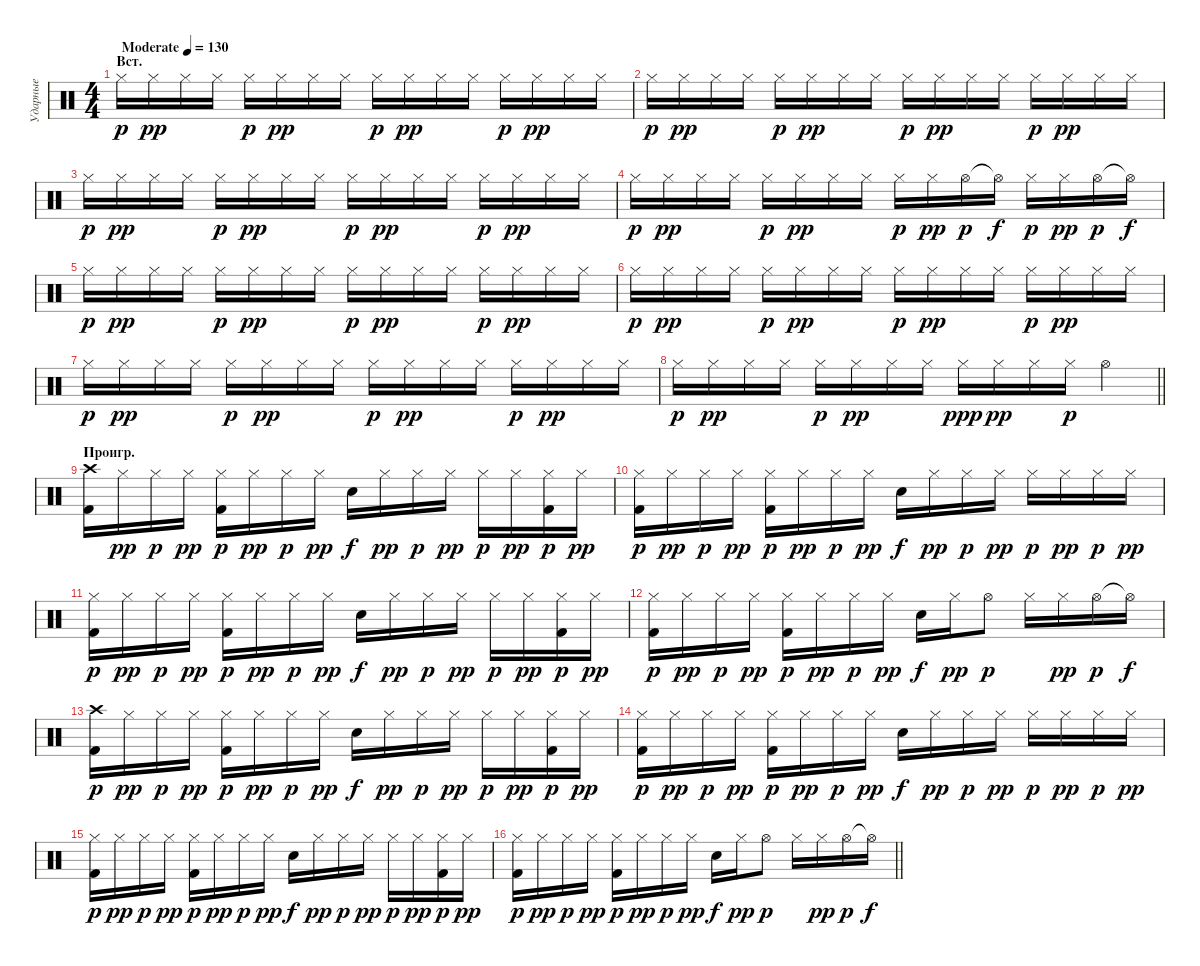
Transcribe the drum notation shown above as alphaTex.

\track ("Ударные" "Ударные") {instrument percussion}
\staff {score}
\articulation defaults
\ts (4 4)
\section ("" "Вст.")
\tempo (130 "Moderate")
\clef neutral
\ks c "Hi-Hat (closed)".16{dy p} "Hi-Hat (closed)".16{dy pp} "Hi-Hat (closed)".16 "Hi-Hat (closed)".16 "Hi-Hat (closed)".16{dy p} "Hi-Hat (closed)".16{dy pp} "Hi-Hat (closed)".16 "Hi-Hat (closed)".16 "Hi-Hat (closed)".16{dy p} "Hi-Hat (closed)".16{dy pp} "Hi-Hat (closed)".16 "Hi-Hat (closed)".16 "Hi-Hat (closed)".16{dy p} "Hi-Hat (closed)".16{dy pp} "Hi-Hat (closed)".16 "Hi-Hat (closed)".16
|
"Hi-Hat (closed)".16{dy p} "Hi-Hat (closed)".16{dy pp} "Hi-Hat (closed)".16 "Hi-Hat (closed)".16 "Hi-Hat (closed)".16{dy p} "Hi-Hat (closed)".16{dy pp} "Hi-Hat (closed)".16 "Hi-Hat (closed)".16 "Hi-Hat (closed)".16{dy p} "Hi-Hat (closed)".16{dy pp} "Hi-Hat (closed)".16 "Hi-Hat (closed)".16 "Hi-Hat (closed)".16{dy p} "Hi-Hat (closed)".16{dy pp} "Hi-Hat (closed)".16 "Hi-Hat (closed)".16 |
"Hi-Hat (closed)".16{dy p} "Hi-Hat (closed)".16{dy pp} "Hi-Hat (closed)".16 "Hi-Hat (closed)".16 "Hi-Hat (closed)".16{dy p} "Hi-Hat (closed)".16{dy pp} "Hi-Hat (closed)".16 "Hi-Hat (closed)".16 "Hi-Hat (closed)".16{dy p} "Hi-Hat (closed)".16{dy pp} "Hi-Hat (closed)".16 "Hi-Hat (closed)".16 "Hi-Hat (closed)".16{dy p} "Hi-Hat (closed)".16{dy pp} "Hi-Hat (closed)".16 "Hi-Hat (closed)".16 |
"Hi-Hat (closed)".16{dy p} "Hi-Hat (closed)".16{dy pp} "Hi-Hat (closed)".16 "Hi-Hat (closed)".16 "Hi-Hat (closed)".16{dy p} "Hi-Hat (closed)".16{dy pp} "Hi-Hat (closed)".16 "Hi-Hat (closed)".16 "Hi-Hat (closed)".16{dy p} "Hi-Hat (closed)".16{dy pp} "Hi-Hat (open)".16{dy p} "Hi-Hat (open)"{t}.16{dy f} "Hi-Hat (closed)".16{dy p} "Hi-Hat (closed)".16{dy pp} "Hi-Hat (open)".16{dy p} "Hi-Hat (open)"{t}.16{dy f} |
"Hi-Hat (closed)".16{dy p} "Hi-Hat (closed)".16{dy pp} "Hi-Hat (closed)".16 "Hi-Hat (closed)".16 "Hi-Hat (closed)".16{dy p} "Hi-Hat (closed)".16{dy pp} "Hi-Hat (closed)".16 "Hi-Hat (closed)".16 "Hi-Hat (closed)".16{dy p} "Hi-Hat (closed)".16{dy pp} "Hi-Hat (closed)".16 "Hi-Hat (closed)".16 "Hi-Hat (closed)".16{dy p} "Hi-Hat (closed)".16{dy pp} "Hi-Hat (closed)".16 "Hi-Hat (closed)".16 |
"Hi-Hat (closed)".16{dy p} "Hi-Hat (closed)".16{dy pp} "Hi-Hat (closed)".16 "Hi-Hat (closed)".16 "Hi-Hat (closed)".16{dy p} "Hi-Hat (closed)".16{dy pp} "Hi-Hat (closed)".16 "Hi-Hat (closed)".16 "Hi-Hat (closed)".16{dy p} "Hi-Hat (closed)".16{dy pp} "Hi-Hat (closed)".16 "Hi-Hat (closed)".16 "Hi-Hat (closed)".16{dy p} "Hi-Hat (closed)".16{dy pp} "Hi-Hat (closed)".16 "Hi-Hat (closed)".16 |
"Hi-Hat (closed)".16{dy p} "Hi-Hat (closed)".16{dy pp} "Hi-Hat (closed)".16 "Hi-Hat (closed)".16 "Hi-Hat (closed)".16{dy p} "Hi-Hat (closed)".16{dy pp} "Hi-Hat (closed)".16 "Hi-Hat (closed)".16 "Hi-Hat (closed)".16{dy p} "Hi-Hat (closed)".16{dy pp} "Hi-Hat (closed)".16 "Hi-Hat (closed)".16 "Hi-Hat (closed)".16{dy p} "Hi-Hat (closed)".16{dy pp} "Hi-Hat (closed)".16 "Hi-Hat (closed)".16 |
\barLineRight lightlight "Hi-Hat (closed)".16{dy p} "Hi-Hat (closed)".16{dy pp} "Hi-Hat (closed)".16 "Hi-Hat (closed)".16 "Hi-Hat (closed)".16{dy p} "Hi-Hat (closed)".16{dy pp} "Hi-Hat (closed)".16 "Hi-Hat (closed)".16 "Hi-Hat (closed)".16{dy ppp} "Hi-Hat (closed)".16{dy pp} "Hi-Hat (closed)".16 "Hi-Hat (closed)".16{dy p} "Hi-Hat (open)".4
|
\section ("" "Проигр.")
("Crash high (hit)" "Kick (hit) 2").16 "Hi-Hat (closed)".16{dy pp} "Hi-Hat (closed)".16{dy p} "Hi-Hat (closed)".16{dy pp} ("Hi-Hat (closed)" "Kick (hit) 2").16{dy p} "Hi-Hat (closed)".16{dy pp} "Hi-Hat (closed)".16{dy p} "Hi-Hat (closed)".16{dy pp} "Snare (hit) 2".16{dy f} "Hi-Hat (closed)".16{dy pp} "Hi-Hat (closed)".16{dy p} "Hi-Hat (closed)".16{dy pp} "Hi-Hat (closed)".16{dy p} "Hi-Hat (closed)".16{dy pp} ("Hi-Hat (closed)" "Kick (hit) 2").16{dy p} "Hi-Hat (closed)".16{dy pp} |
("Hi-Hat (closed)" "Kick (hit) 2").16{dy p} "Hi-Hat (closed)".16{dy pp} "Hi-Hat (closed)".16{dy p} "Hi-Hat (closed)".16{dy pp} ("Hi-Hat (closed)" "Kick (hit) 2").16{dy p} "Hi-Hat (closed)".16{dy pp} "Hi-Hat (closed)".16{dy p} "Hi-Hat (closed)".16{dy pp} "Snare (hit) 2".16{dy f} "Hi-Hat (closed)".16{dy pp} "Hi-Hat (closed)".16{dy p} "Hi-Hat (closed)".16{dy pp} "Hi-Hat (closed)".16{dy p} "Hi-Hat (closed)".16{dy pp} "Hi-Hat (closed)".16{dy p} "Hi-Hat (closed)".16{dy pp} |
("Hi-Hat (closed)" "Kick (hit) 2").16{dy p} "Hi-Hat (closed)".16{dy pp} "Hi-Hat (closed)".16{dy p} "Hi-Hat (closed)".16{dy pp} ("Hi-Hat (closed)" "Kick (hit) 2").16{dy p} "Hi-Hat (closed)".16{dy pp} "Hi-Hat (closed)".16{dy p} "Hi-Hat (closed)".16{dy pp} "Snare (hit) 2".16{dy f} "Hi-Hat (closed)".16{dy pp} "Hi-Hat (closed)".16{dy p} "Hi-Hat (closed)".16{dy pp} "Hi-Hat (closed)".16{dy p} "Hi-Hat (closed)".16{dy pp} ("Hi-Hat (closed)" "Kick (hit) 2").16{dy p} "Hi-Hat (closed)".16{dy pp} |
("Hi-Hat (closed)" "Kick (hit) 2").16{dy p} "Hi-Hat (closed)".16{dy pp} "Hi-Hat (closed)".16{dy p} "Hi-Hat (closed)".16{dy pp} ("Hi-Hat (closed)" "Kick (hit) 2").16{dy p} "Hi-Hat (closed)".16{dy pp} "Hi-Hat (closed)".16{dy p} "Hi-Hat (closed)".16{dy pp} "Snare (hit) 2".16{dy f} "Hi-Hat (closed)".16{dy pp} "Hi-Hat (open)".8{dy p} "Hi-Hat (closed)".16 "Hi-Hat (closed)".16{dy pp} "Hi-Hat (open)".16{dy p} "Hi-Hat (open)"{t}.16{dy f} |
("Crash high (hit)" "Kick (hit) 2").16{dy p} "Hi-Hat (closed)".16{dy pp} "Hi-Hat (closed)".16{dy p} "Hi-Hat (closed)".16{dy pp} ("Hi-Hat (closed)" "Kick (hit) 2").16{dy p} "Hi-Hat (closed)".16{dy pp} "Hi-Hat (closed)".16{dy p} "Hi-Hat (closed)".16{dy pp} "Snare (hit) 2".16{dy f} "Hi-Hat (closed)".16{dy pp} "Hi-Hat (closed)".16{dy p} "Hi-Hat (closed)".16{dy pp} "Hi-Hat (closed)".16{dy p} "Hi-Hat (closed)".16{dy pp} ("Hi-Hat (closed)" "Kick (hit) 2").16{dy p} "Hi-Hat (closed)".16{dy pp} |
("Hi-Hat (closed)" "Kick (hit) 2").16{dy p} "Hi-Hat (closed)".16{dy pp} "Hi-Hat (closed)".16{dy p} "Hi-Hat (closed)".16{dy pp} ("Hi-Hat (closed)" "Kick (hit) 2").16{dy p} "Hi-Hat (closed)".16{dy pp} "Hi-Hat (closed)".16{dy p} "Hi-Hat (closed)".16{dy pp} "Snare (hit) 2".16{dy f} "Hi-Hat (closed)".16{dy pp} "Hi-Hat (closed)".16{dy p} "Hi-Hat (closed)".16{dy pp} "Hi-Hat (closed)".16{dy p} "Hi-Hat (closed)".16{dy pp} "Hi-Hat (closed)".16{dy p} "Hi-Hat (closed)".16{dy pp} |
("Hi-Hat (closed)" "Kick (hit) 2").16{dy p} "Hi-Hat (closed)".16{dy pp} "Hi-Hat (closed)".16{dy p} "Hi-Hat (closed)".16{dy pp} ("Hi-Hat (closed)" "Kick (hit) 2").16{dy p} "Hi-Hat (closed)".16{dy pp} "Hi-Hat (closed)".16{dy p} "Hi-Hat (closed)".16{dy pp} "Snare (hit) 2".16{dy f} "Hi-Hat (closed)".16{dy pp} "Hi-Hat (closed)".16{dy p} "Hi-Hat (closed)".16{dy pp} "Hi-Hat (closed)".16{dy p} "Hi-Hat (closed)".16{dy pp} ("Hi-Hat (closed)" "Kick (hit) 2").16{dy p} "Hi-Hat (closed)".16{dy pp} |
\barLineRight lightlight
("Hi-Hat (closed)" "Kick (hit) 2").16{dy p} "Hi-Hat (closed)".16{dy pp} "Hi-Hat (closed)".16{dy p} "Hi-Hat (closed)".16{dy pp} ("Hi-Hat (closed)" "Kick (hit) 2").16{dy p} "Hi-Hat (closed)".16{dy pp} "Hi-Hat (closed)".16{dy p} "Hi-Hat (closed)".16{dy pp} "Snare (hit) 2".16{dy f} "Hi-Hat (closed)".16{dy pp} "Hi-Hat (open)".8{dy p} "Hi-Hat (closed)".16 "Hi-Hat (closed)".16{dy pp} "Hi-Hat (open)".16{dy p} "Hi-Hat (open)"{t}.16{dy f}
